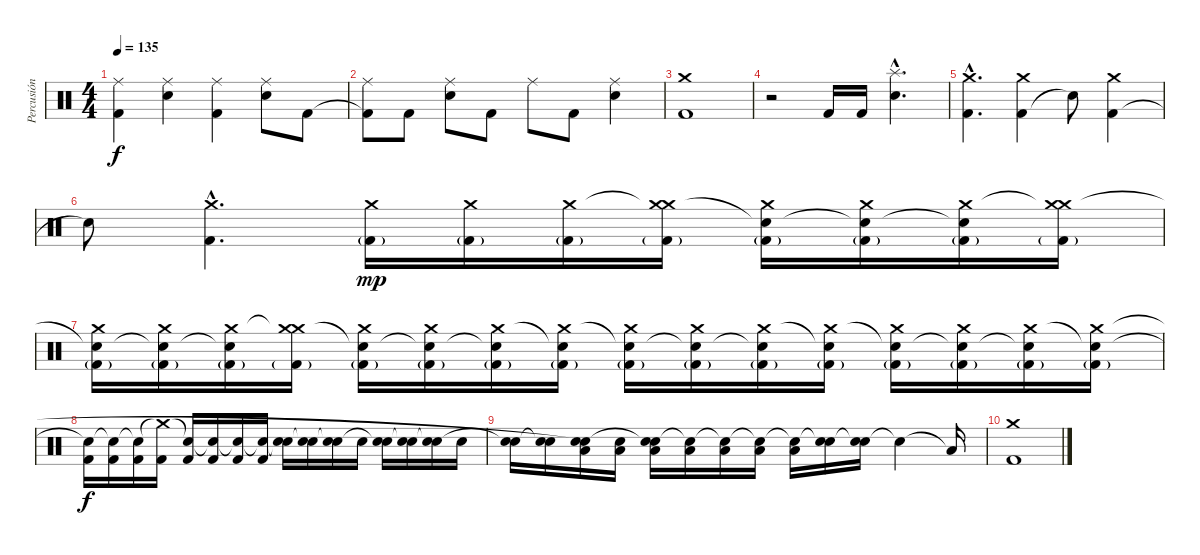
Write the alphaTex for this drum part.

\track ("Percusión" "Percusión") {instrument percussion}
\staff {score}
\articulation defaults
\ts (4 4)
\tempo 135
\clef neutral
\ks c
("Kick (hit) 2" "Ride (middle)").4{dy f} ("Snare (hit) 2" "Ride (middle)").4 ("Kick (hit) 2" "Ride (middle)").4 ("Snare (hit) 2" "Ride (middle)").8 "Kick (hit) 2".8 |
("Kick (hit) 2"{t} "Ride (middle)").8 "Kick (hit) 2".8 ("Snare (hit) 2" "Ride (middle)").8 "Kick (hit) 2".8 "Ride (middle)".8 "Kick (hit) 2".8 ("Snare (hit) 2" "Ride (middle)").4 |
("Kick (hit) 2" "Crash medium (hit)").1 |
r.2 "Kick (hit) 2".16 "Kick (hit) 2".16 ("Snare (hit) 2"{hac} "Splash (hit)"{hac}).4{d} |
("Kick (hit) 2"{hac} "Crash medium (hit)"{hac}).4{d} ("Kick (hit) 2" "Crash medium (hit)").4 "Snare (hit)"{t}.8 ("Kick (hit) 2" "Crash medium (hit)").4 |
"Snare (hit)"{t}.8 ("Kick (hit) 2"{hac} "Crash medium (hit)"{hac}).4{d} ("Kick (hit) 2"{g} "Crash medium (hit)").16{dy mp} ("Kick (hit) 2"{g} "Crash medium (hit)").16 ("Kick (hit) 2"{g} "Crash medium (hit)").16 ("Kick (hit) 2"{g} "Crash medium (hit)"{t} "Crash medium (hit)").16 ("Kick (hit) 2"{g} "Crash medium (hit)" "Snare (hit)"{t}).16 ("Kick (hit) 2"{g} "Crash medium (hit)" "Snare (hit)"{t}).16 ("Kick (hit) 2"{g} "Crash medium (hit)" "Snare (hit)"{t}).16 ("Kick (hit) 2"{g} "Crash medium (hit)"{t} "Crash medium (hit)").16 |
("Kick (hit) 2"{g} "Crash medium (hit)" "Snare (hit)"{t}).16 ("Kick (hit) 2"{g} "Crash medium (hit)" "Snare (hit)"{t}).16 ("Kick (hit) 2"{g} "Crash medium (hit)" "Snare (hit)"{t}).16 ("Kick (hit) 2"{g} "Crash medium (hit)"{t} "Crash medium (hit)").16 ("Kick (hit) 2"{g} "Crash medium (hit)" "Snare (hit)"{t}).16 ("Kick (hit) 2"{g} "Crash medium (hit)" "Snare (hit)"{t}).16 ("Kick (hit) 2"{g} "Crash medium (hit)" "Snare (hit)"{t}).16 ("Kick (hit) 2"{g} "Snare (hit)"{t} "Crash medium (hit)").16 ("Kick (hit) 2"{g} "Crash medium (hit)" "Snare (hit)"{t}).16 ("Kick (hit) 2"{g} "Crash medium (hit)" "Snare (hit)"{t}).16 ("Kick (hit) 2"{g} "Crash medium (hit)" "Snare (hit)"{t}).16 ("Kick (hit) 2"{g} "Snare (hit)"{t} "Crash medium (hit)").16 ("Kick (hit) 2"{g} "Crash medium (hit)" "Snare (hit)"{t}).16 ("Kick (hit) 2"{g} "Crash medium (hit)" "Snare (hit)"{t}).16 ("Kick (hit) 2"{g} "Crash medium (hit)" "Snare (hit)"{t}).16 ("Kick (hit) 2"{g} "Snare (hit)"{t} "Crash medium (hit)").16 |
("Kick (hit) 2" "Snare (hit)"{t}).16{dy f} ("Kick (hit) 2" "Snare (hit)"{t}).16 ("Kick (hit) 2" "Snare (hit)"{t}).16 ("Kick (hit) 2" "Crash medium (hit)"{t}).16 ("Kick (hit) 2" "Snare (hit)"{t}).16 ("Kick (hit) 2" "Snare (hit)"{t}).16 ("Kick (hit) 2" "Snare (hit)"{t}).16 ("Kick (hit) 2" "Snare (hit)"{t}).16 ("Snare (hit) 2" "Snare (hit)"{t}).16 ("Snare (hit) 2" "Snare (hit)"{t}).16 ("Snare (hit) 2" "Snare (hit)"{t}).16 "Snare (hit) 2".16 ("Snare (hit) 2" "Snare (hit)"{t}).16 ("Snare (hit) 2" "Snare (hit)"{t}).16 ("Snare (hit) 2" "Snare (hit)"{t}).16 "Snare (hit) 2".16 |
("Snare (hit) 2" "Snare (hit)"{t}).16 ("Snare (hit) 2" "Snare (hit)"{t}).16 ("Low Tom (hit)" "Snare (hit) 2" "Snare (hit)"{t}).16 ("Low Tom (hit)" "Snare (hit) 2").16 ("Low Tom (hit)" "Snare (hit) 2" "Snare (hit)"{t}).16 ("Low Tom (hit)" "Snare (hit)"{t}).16 ("Low Tom (hit)" "Snare (hit)"{t}).16 ("Low Tom (hit)" "Snare (hit)"{t}).16 ("Low Tom (hit)" "Snare (hit)"{t}).16 ("Snare (hit) 2" "Snare (hit)"{t}).16 ("Snare (hit) 2" "Snare (hit)"{t}).16 "Snare (hit)"{t}.4 "Low Tom (hit)"{t}.16 |
("Kick (hit) 2" "Crash medium (hit)").1
